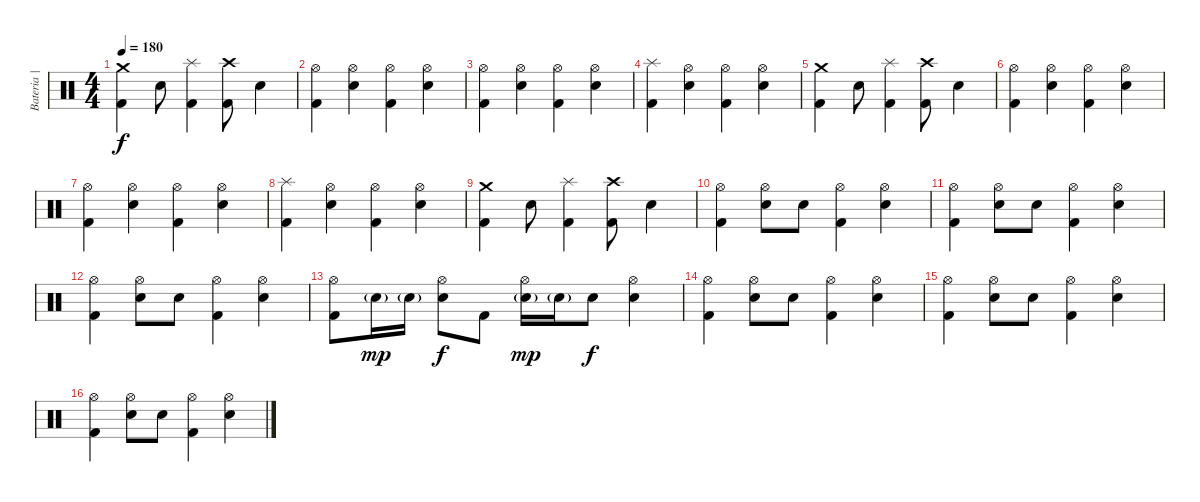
\track ("Bateria | Fábio" "Bateria | ") {instrument percussion}
\staff {score}
\articulation defaults
\ts (4 4)
\tempo 180
\clef neutral
\ks c
("Crash medium (hit)" "Kick (hit) 2").4{dy f} "Snare (hit) 2".8 ("Splash (hit)" "Kick (hit) 2").4 ("Crash high (hit)" "Kick (hit) 2").8 "Snare (hit) 2".4 |
("Hi-Hat (open)" "Kick (hit) 2").4 ("Hi-Hat (open)" "Snare (hit) 2").4 ("Hi-Hat (open)" "Kick (hit) 2").4 ("Hi-Hat (open)" "Snare (hit) 2").4 |
("Hi-Hat (open)" "Kick (hit) 2").4 ("Hi-Hat (open)" "Snare (hit) 2").4 ("Hi-Hat (open)" "Kick (hit) 2").4 ("Hi-Hat (open)" "Snare (hit) 2").4 |
("Splash (hit)" "Kick (hit) 2").4 ("Hi-Hat (open)" "Snare (hit) 2").4 ("Hi-Hat (open)" "Kick (hit) 2").4 ("Hi-Hat (open)" "Snare (hit) 2").4 |
("Crash medium (hit)" "Kick (hit) 2").4 "Snare (hit) 2".8 ("Splash (hit)" "Kick (hit) 2").4 ("Crash high (hit)" "Kick (hit) 2").8 "Snare (hit) 2".4 |
("Hi-Hat (open)" "Kick (hit) 2").4 ("Hi-Hat (open)" "Snare (hit) 2").4 ("Hi-Hat (open)" "Kick (hit) 2").4 ("Hi-Hat (open)" "Snare (hit) 2").4 |
("Hi-Hat (open)" "Kick (hit) 2").4 ("Hi-Hat (open)" "Snare (hit) 2").4 ("Hi-Hat (open)" "Kick (hit) 2").4 ("Hi-Hat (open)" "Snare (hit) 2").4 |
("Splash (hit)" "Kick (hit) 2").4 ("Hi-Hat (open)" "Snare (hit) 2").4 ("Hi-Hat (open)" "Kick (hit) 2").4 ("Hi-Hat (open)" "Snare (hit) 2").4 |
("Crash medium (hit)" "Kick (hit) 2").4 "Snare (hit) 2".8 ("Splash (hit)" "Kick (hit) 2").4 ("Crash high (hit)" "Kick (hit) 2").8 "Snare (hit) 2".4 |
("Hi-Hat (open)" "Kick (hit) 2").4 ("Hi-Hat (open)" "Snare (hit) 2").8 "Snare (hit) 2".8 ("Hi-Hat (open)" "Kick (hit) 2").4 ("Hi-Hat (open)" "Snare (hit) 2").4 |
("Hi-Hat (open)" "Kick (hit) 2").4 ("Hi-Hat (open)" "Snare (hit) 2").8 "Snare (hit) 2".8 ("Hi-Hat (open)" "Kick (hit) 2").4 ("Hi-Hat (open)" "Snare (hit) 2").4 |
("Hi-Hat (open)" "Kick (hit) 2").4 ("Hi-Hat (open)" "Snare (hit) 2").8 "Snare (hit) 2".8 ("Hi-Hat (open)" "Kick (hit) 2").4 ("Hi-Hat (open)" "Snare (hit) 2").4 |
("Hi-Hat (open)" "Kick (hit) 2").8 "Snare (hit) 2"{g}.16{dy mp} "Snare (hit) 2"{g}.16 ("Hi-Hat (open)" "Snare (hit) 2").8{dy f} "Kick (hit) 2".8 ("Hi-Hat (open)" "Snare (hit) 2"{g}).16{dy mp} "Snare (hit) 2"{g}.16 "Snare (hit) 2".8{dy f} ("Hi-Hat (open)" "Snare (hit) 2").4 |
("Hi-Hat (open)" "Kick (hit) 2").4 ("Hi-Hat (open)" "Snare (hit) 2").8 "Snare (hit) 2".8 ("Hi-Hat (open)" "Kick (hit) 2").4 ("Hi-Hat (open)" "Snare (hit) 2").4 |
("Hi-Hat (open)" "Kick (hit) 2").4 ("Hi-Hat (open)" "Snare (hit) 2").8 "Snare (hit) 2".8 ("Hi-Hat (open)" "Kick (hit) 2").4 ("Hi-Hat (open)" "Snare (hit) 2").4 |
("Hi-Hat (open)" "Kick (hit) 2").4 ("Hi-Hat (open)" "Snare (hit) 2").8 "Snare (hit) 2".8 ("Hi-Hat (open)" "Kick (hit) 2").4 ("Hi-Hat (open)" "Snare (hit) 2").4
